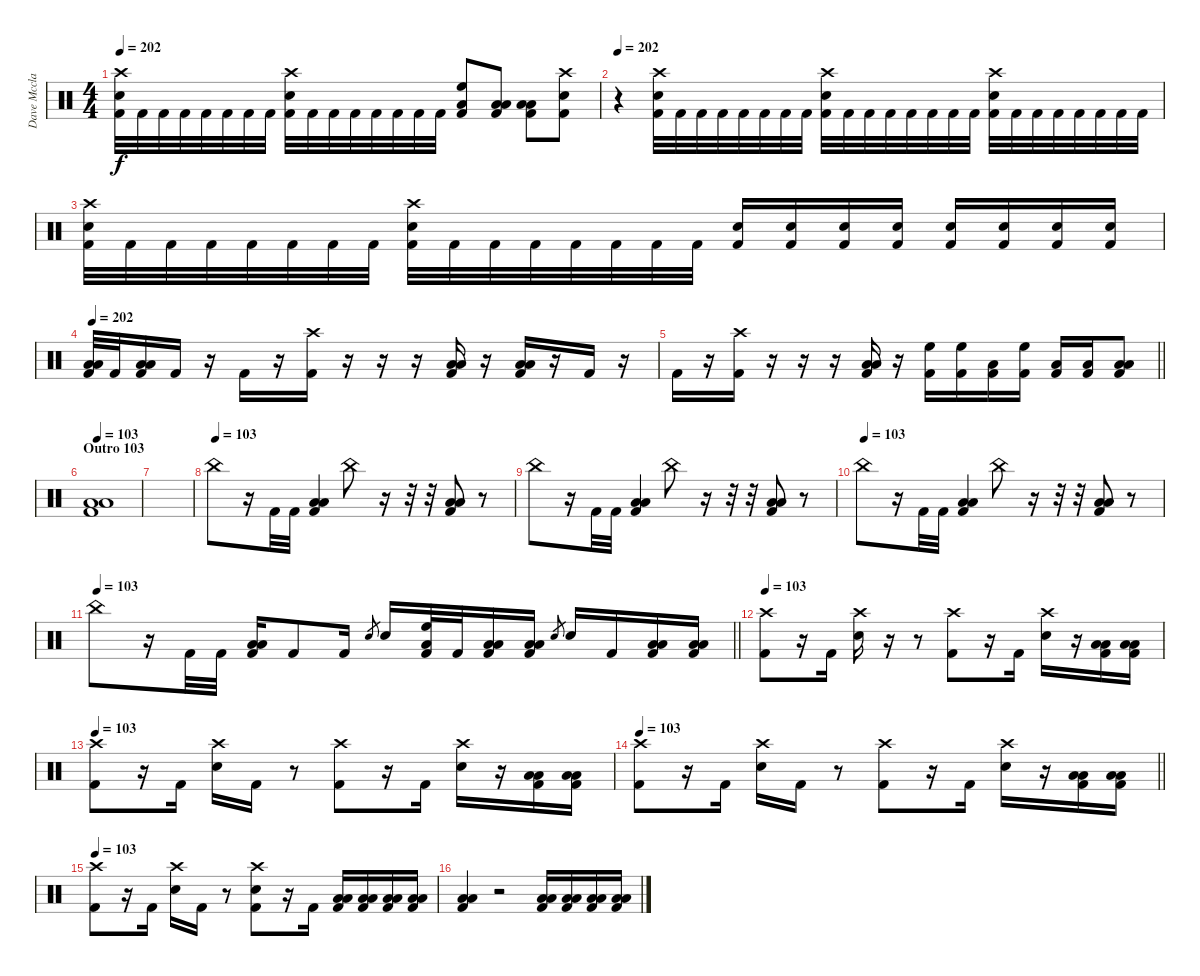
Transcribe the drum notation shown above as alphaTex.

\track ("Dave Mcclain" "Dave Mccla") {instrument percussion}
\staff {score}
\articulation defaults
\ts (4 4)
\tempo 202
\clef neutral
\ks c
("Crash high (hit)" "Electric Snare (hit)" "Kick (hit) 2").32{dy f} "Kick (hit) 2".32 "Kick (hit) 2".32 "Kick (hit) 2".32 "Kick (hit) 2".32 "Kick (hit) 2".32 "Kick (hit) 2".32 "Kick (hit) 2".32 ("Crash high (hit)" "Electric Snare (hit)" "Kick (hit) 2").32 "Kick (hit) 2".32 "Kick (hit) 2".32 "Kick (hit) 2".32 "Kick (hit) 2".32 "Kick (hit) 2".32 "Kick (hit) 2".32 "Kick (hit) 2".32 ("High Floor Tom (hit)" "Low Tom (hit)" "Kick (hit) 2").8 ("Low Tom (hit)" "Low Floor Tom (hit)" "Kick (hit) 2").8 ("Low Floor Tom (hit)" "Low Floor Tom (hit)" "Kick (hit) 2").8 ("Crash high (hit)" "Electric Snare (hit)" "Kick (hit) 2").8 |
\tempo 202
r.4 ("Crash high (hit)" "Electric Snare (hit)" "Kick (hit) 2").32 "Kick (hit) 2".32 "Kick (hit) 2".32 "Kick (hit) 2".32 "Kick (hit) 2".32 "Kick (hit) 2".32 "Kick (hit) 2".32 "Kick (hit) 2".32 ("Crash high (hit)" "Electric Snare (hit)" "Kick (hit) 2").32 "Kick (hit) 2".32 "Kick (hit) 2".32 "Kick (hit) 2".32 "Kick (hit) 2".32 "Kick (hit) 2".32 "Kick (hit) 2".32 "Kick (hit) 2".32 ("Crash high (hit)" "Electric Snare (hit)" "Kick (hit) 2").32 "Kick (hit) 2".32 "Kick (hit) 2".32 "Kick (hit) 2".32 "Kick (hit) 2".32 "Kick (hit) 2".32 "Kick (hit) 2".32 "Kick (hit) 2".32 |
("Crash high (hit)" "Electric Snare (hit)" "Kick (hit) 2").32 "Kick (hit) 2".32 "Kick (hit) 2".32 "Kick (hit) 2".32 "Kick (hit) 2".32 "Kick (hit) 2".32 "Kick (hit) 2".32 "Kick (hit) 2".32 ("Crash high (hit)" "Electric Snare (hit)" "Kick (hit) 2").32 "Kick (hit) 2".32 "Kick (hit) 2".32 "Kick (hit) 2".32 "Kick (hit) 2".32 "Kick (hit) 2".32 "Kick (hit) 2".32 "Kick (hit) 2".32 ("Electric Snare (hit)" "Kick (hit) 2").16 ("Electric Snare (hit)" "Kick (hit) 2").16 ("Electric Snare (hit)" "Kick (hit) 2").16 ("Electric Snare (hit)" "Kick (hit) 2").16 ("Electric Snare (hit)" "Kick (hit) 2").16 ("Electric Snare (hit)" "Kick (hit) 2").16 ("Electric Snare (hit)" "Kick (hit) 2").16 ("Electric Snare (hit)" "Kick (hit) 2").16 |
\tempo 202
("Low Tom (hit)" "Low Floor Tom (hit)" "Kick (hit) 2").32 "Kick (hit) 2".32 ("Low Tom (hit)" "Low Floor Tom (hit)" "Kick (hit) 2").16 "Kick (hit) 2".16 r.16 "Kick (hit) 2".16 r.16 ("Crash high (hit)" "Kick (hit) 2").16 r.16 r.16 r.16 ("Low Tom (hit)" "Low Floor Tom (hit)" "Kick (hit) 2").16 r.16 ("Low Tom (hit)" "Low Floor Tom (hit)" "Kick (hit) 2").16 r.16 "Kick (hit) 2".16 r.16 |
\barLineRight lightlight "Kick (hit) 2".16
r.16 ("Crash high (hit)" "Kick (hit) 2").16 r.16 r.16 r.16 ("Low Tom (hit)" "Low Floor Tom (hit)" "Kick (hit) 2").16 r.16 ("High Floor Tom (hit)" "Kick (hit) 2").16 ("High Floor Tom (hit)" "Kick (hit) 2").16 ("Low Tom (hit)" "Kick (hit) 2").16 ("High Floor Tom (hit)" "Kick (hit) 2").16 ("Low Tom (hit)" "Kick (hit) 2").16 ("Low Tom (hit)" "Kick (hit) 2").16 ("Low Tom (hit)" "Low Floor Tom (hit)" "Kick (hit) 2").8 |
\section ("" "Outro 103")
\tempo 103
("Low Tom (hit)" "Low Floor Tom (hit)" "Kick (hit) 2").1 |
|
\tempo (103)
"China (hit)".8 r.16 "Kick (hit) 2".32 "Kick (hit) 2".32 ("Low Tom (hit)" "Low Floor Tom (hit)" "Kick (hit) 2").4 "China (hit)".8 r.16 r.32 r.32 ("Low Tom (hit)" "Low Floor Tom (hit)" "Kick (hit) 2").8 r.8 |
"China (hit)".8 r.16 "Kick (hit) 2".32 "Kick (hit) 2".32 ("Low Tom (hit)" "Low Floor Tom (hit)" "Kick (hit) 2").4 "China (hit)".8 r.16 r.32 r.32 ("Low Tom (hit)" "Low Floor Tom (hit)" "Kick (hit) 2").8 r.8 |
\tempo (103)
"China (hit)".8 r.16 "Kick (hit) 2".32 "Kick (hit) 2".32 ("Low Tom (hit)" "Low Floor Tom (hit)" "Kick (hit) 2").4 "China (hit)".8 r.16 r.32 r.32 ("Low Tom (hit)" "Low Floor Tom (hit)" "Kick (hit) 2").8 r.8 |
\tempo 103
\barLineRight lightlight "China (hit)".8
r.16 "Kick (hit) 2".32 "Kick (hit) 2".32 ("Low Tom (hit)" "Low Floor Tom (hit)" "Kick (hit) 2").16 "Kick (hit) 2".8 "Kick (hit) 2".16 "Electric Snare (hit)".8{gr} "Electric Snare (hit)".16 ("High Floor Tom (hit)" "Low Floor Tom (hit)" "Kick (hit) 2").32 "Kick (hit) 2".32 ("Low Tom (hit)" "Low Floor Tom (hit)" "Kick (hit) 2").16 ("Low Floor Tom (hit)" "Low Floor Tom (hit)" "Kick (hit) 2").16 "Electric Snare (hit)".8{gr} "Electric Snare (hit)".16 "Kick (hit) 2".16 ("Low Tom (hit)" "Low Floor Tom (hit)" "Kick (hit) 2").16 ("Low Floor Tom (hit)" "Low Floor Tom (hit)" "Kick (hit) 2").16 |
\section ("" "")
\tempo 103
("Crash high (hit)" "Kick (hit) 2").8 r.16 "Kick (hit) 2".16 ("Crash high (hit)" "Electric Snare (hit)").16 r.16 r.8 ("Crash high (hit)" "Kick (hit) 2").8 r.16 "Kick (hit) 2".16 ("Crash high (hit)" "Electric Snare (hit)").16 r.16 ("Low Tom (hit)" "Low Floor Tom (hit)" "Kick (hit) 2").16 ("Low Tom (hit)" "Low Floor Tom (hit)" "Kick (hit) 2").16 |
\tempo 103
("Crash high (hit)" "Kick (hit) 2").8 r.16 "Kick (hit) 2".16 ("Crash high (hit)" "Electric Snare (hit)").16 "Kick (hit) 2".16 r.8 ("Crash high (hit)" "Kick (hit) 2").8 r.16 "Kick (hit) 2".16 ("Crash high (hit)" "Electric Snare (hit)").16 r.16 ("Low Tom (hit)" "Low Floor Tom (hit)" "Kick (hit) 2").16 ("Low Tom (hit)" "Low Floor Tom (hit)" "Kick (hit) 2").16 |
\tempo 103
\barLineRight lightlight
("Crash high (hit)" "Kick (hit) 2").8 r.16 "Kick (hit) 2".16 ("Crash high (hit)" "Electric Snare (hit)").16 "Kick (hit) 2".16 r.8 ("Crash high (hit)" "Kick (hit) 2").8 r.16 "Kick (hit) 2".16 ("Crash high (hit)" "Electric Snare (hit)").16 r.16 ("Low Tom (hit)" "Low Floor Tom (hit)" "Kick (hit) 2").16 ("Low Tom (hit)" "Low Floor Tom (hit)" "Kick (hit) 2").16 |
\section ("" "")
\tempo 103
("Crash high (hit)" "Kick (hit) 2").8 r.16 "Kick (hit) 2".16 ("Crash high (hit)" "Electric Snare (hit)").16 "Kick (hit) 2".16 r.8 ("Crash high (hit)" "Electric Snare (hit)" "Kick (hit) 2").8 r.16 "Kick (hit) 2".16 ("Low Tom (hit)" "Low Floor Tom (hit)" "Kick (hit) 2").16 ("Low Tom (hit)" "Low Floor Tom (hit)" "Kick (hit) 2").16 ("Low Tom (hit)" "Low Floor Tom (hit)" "Kick (hit) 2").16 ("Low Tom (hit)" "Low Floor Tom (hit)" "Kick (hit) 2").16 |
("Low Tom (hit)" "Low Floor Tom (hit)" "Kick (hit) 2").4 r.2 ("Low Tom (hit)" "Low Floor Tom (hit)" "Kick (hit) 2").16 ("Low Tom (hit)" "Low Floor Tom (hit)" "Kick (hit) 2").16 ("Low Tom (hit)" "Low Floor Tom (hit)" "Kick (hit) 2").16 ("Low Tom (hit)" "Low Floor Tom (hit)" "Kick (hit) 2").16
